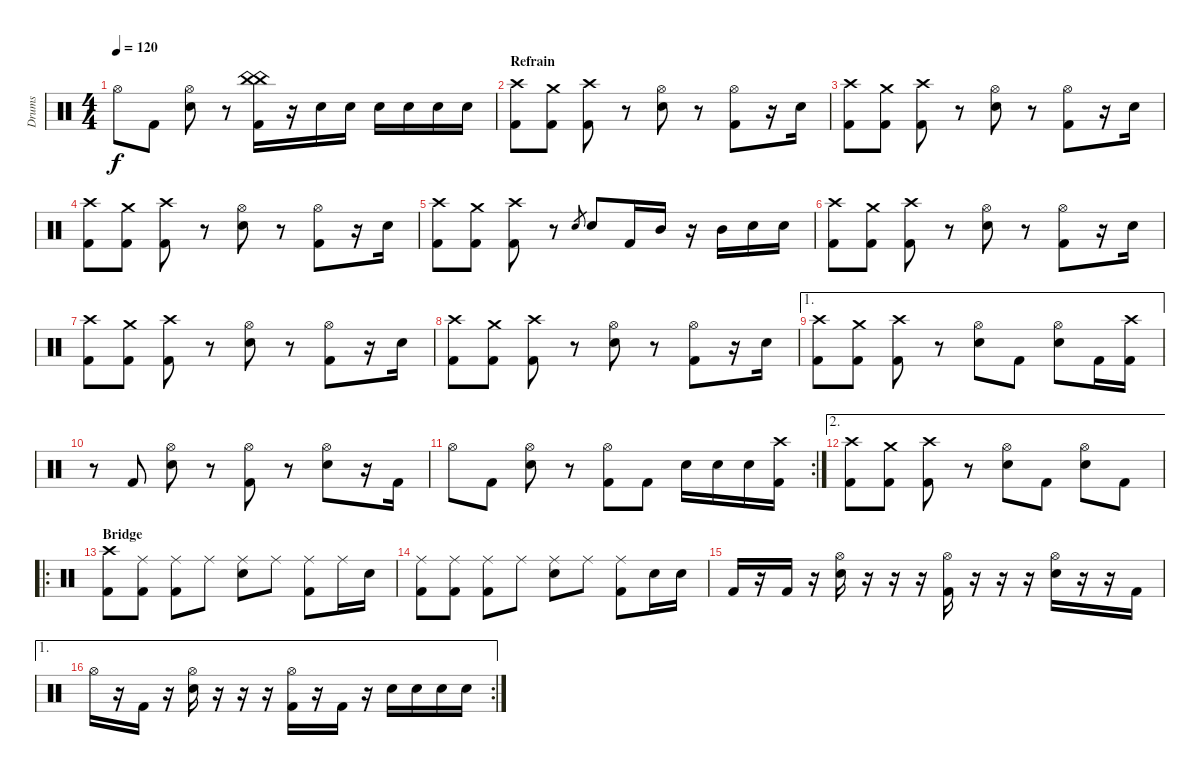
\track ("Drums" "Drums") {instrument percussion}
\staff {score}
\articulation defaults
\ts (4 4)
\tempo 120
\clef neutral
\ks c "Hi-Hat (open)".8{dy f} "Kick (hit) 2".8
("Hi-Hat (open)" "Electric Snare (hit)").8 r.8 ("China (hit)" "China (hit)" "Kick (hit) 2").16 r.16 "Electric Snare (hit)".16 "Electric Snare (hit)".16 "Electric Snare (hit)".16 "Electric Snare (hit)".16 "Electric Snare (hit)".16 "Electric Snare (hit)".16 |
\section ("" "Refrain")
("Crash high (hit)" "Kick (hit) 2").8 ("Crash medium (hit)" "Kick (hit) 2").8 ("Crash high (hit)" "Kick (hit) 2").8 r.8 ("Hi-Hat (open)" "Electric Snare (hit)").8 r.8 ("Hi-Hat (open)" "Kick (hit) 2").8 r.16 "Electric Snare (hit)".16 |
("Crash high (hit)" "Kick (hit) 2").8 ("Crash medium (hit)" "Kick (hit) 2").8 ("Crash high (hit)" "Kick (hit) 2").8 r.8 ("Hi-Hat (open)" "Electric Snare (hit)").8 r.8 ("Hi-Hat (open)" "Kick (hit) 2").8 r.16 "Electric Snare (hit)".16 |
("Crash high (hit)" "Kick (hit) 2").8 ("Crash medium (hit)" "Kick (hit) 2").8 ("Crash high (hit)" "Kick (hit) 2").8 r.8 ("Hi-Hat (open)" "Electric Snare (hit)").8 r.8 ("Hi-Hat (open)" "Kick (hit) 2").8 r.16 "Electric Snare (hit)".16 |
("Crash high (hit)" "Kick (hit) 2").8 ("Crash medium (hit)" "Kick (hit) 2").8 ("Crash high (hit)" "Kick (hit) 2").8 r.8 "Electric Snare (hit)".8{gr} "Electric Snare (hit)".8 "Kick (hit) 2".16 "Mid Tom (hit)".16 r.16 "Mid Tom (hit)".16 "Electric Snare (hit)".16 "Electric Snare (hit)".16 |
("Crash high (hit)" "Kick (hit) 2").8 ("Crash medium (hit)" "Kick (hit) 2").8 ("Crash high (hit)" "Kick (hit) 2").8 r.8 ("Hi-Hat (open)" "Electric Snare (hit)").8 r.8 ("Hi-Hat (open)" "Kick (hit) 2").8 r.16 "Electric Snare (hit)".16 |
("Crash high (hit)" "Kick (hit) 2").8 ("Crash medium (hit)" "Kick (hit) 2").8 ("Crash high (hit)" "Kick (hit) 2").8 r.8 ("Hi-Hat (open)" "Electric Snare (hit)").8 r.8 ("Hi-Hat (open)" "Kick (hit) 2").8 r.16 "Electric Snare (hit)".16 |
("Crash high (hit)" "Kick (hit) 2").8 ("Crash medium (hit)" "Kick (hit) 2").8 ("Crash high (hit)" "Kick (hit) 2").8 r.8 ("Hi-Hat (open)" "Electric Snare (hit)").8 r.8 ("Hi-Hat (open)" "Kick (hit) 2").8 r.16 "Electric Snare (hit)".16 |
\ae 1
("Crash high (hit)" "Kick (hit) 2").8 ("Crash medium (hit)" "Kick (hit) 2").8 ("Crash high (hit)" "Kick (hit) 2").8 r.8 ("Hi-Hat (open)" "Electric Snare (hit)").8 "Kick (hit) 2".8 ("Hi-Hat (open)" "Electric Snare (hit)").8 "Kick (hit) 2".16 ("Crash high (hit)" "Kick (hit) 2").16 |
r.8 "Kick (hit) 2".8 ("Hi-Hat (open)" "Electric Snare (hit)").8 r.8 ("Hi-Hat (open)" "Kick (hit) 2").8 r.8 ("Hi-Hat (open)" "Electric Snare (hit)").8 r.16 "Kick (hit) 2".16 |
\rc 2 "Hi-Hat (open)".8 "Kick (hit) 2".8
("Hi-Hat (open)" "Electric Snare (hit)").8 r.8 ("Hi-Hat (open)" "Kick (hit) 2").8 "Kick (hit) 2".8 "Electric Snare (hit)".16 "Electric Snare (hit)".16 "Electric Snare (hit)".16 ("Crash high (hit)" "Kick (hit) 2").16 |
\ae 2
("Crash high (hit)" "Kick (hit) 2").8 ("Crash medium (hit)" "Kick (hit) 2").8 ("Crash high (hit)" "Kick (hit) 2").8 r.8 ("Hi-Hat (open)" "Electric Snare (hit)").8 "Kick (hit) 2".8 ("Hi-Hat (open)" "Electric Snare (hit)").8 "Kick (hit) 2".8 |
\ro
\section ("" "Bridge")
("Crash high (hit)" "Kick (hit) 2").8 ("Ride (middle)" "Kick (hit) 2").8 ("Ride (middle)" "Kick (hit) 2").8 "Ride (middle)".8 ("Ride (middle)" "Electric Snare (hit)").8 "Ride (middle)".8 ("Ride (middle)" "Kick (hit) 2").8 "Ride (middle)".16 "Electric Snare (hit)".16 |
("Ride (middle)" "Kick (hit) 2").8 ("Ride (middle)" "Kick (hit) 2").8 ("Ride (middle)" "Kick (hit) 2").8 "Ride (middle)".8 ("Ride (middle)" "Electric Snare (hit)").8 "Ride (middle)".8 ("Ride (middle)" "Kick (hit) 2").8 "Electric Snare (hit)".16 "Electric Snare (hit)".16 |
"Kick (hit) 2".16 r.16 "Kick (hit) 2".16 r.16 ("Hi-Hat (open)" "Electric Snare (hit)").16 r.16 r.16 r.16 ("Hi-Hat (open)" "Kick (hit) 2").16 r.16 r.16 r.16 ("Hi-Hat (open)" "Electric Snare (hit)").16 r.16 r.16 "Kick (hit) 2".16 |
\ae 1
\rc 2 "Hi-Hat (open)".16
r.16 "Kick (hit) 2".16 r.16 ("Hi-Hat (open)" "Electric Snare (hit)").16 r.16 r.16 r.16 ("Hi-Hat (open)" "Kick (hit) 2").16 r.16 "Kick (hit) 2".16 r.16 "Electric Snare (hit)".16 "Electric Snare (hit)".16 "Electric Snare (hit)".16 "Electric Snare (hit)".16
